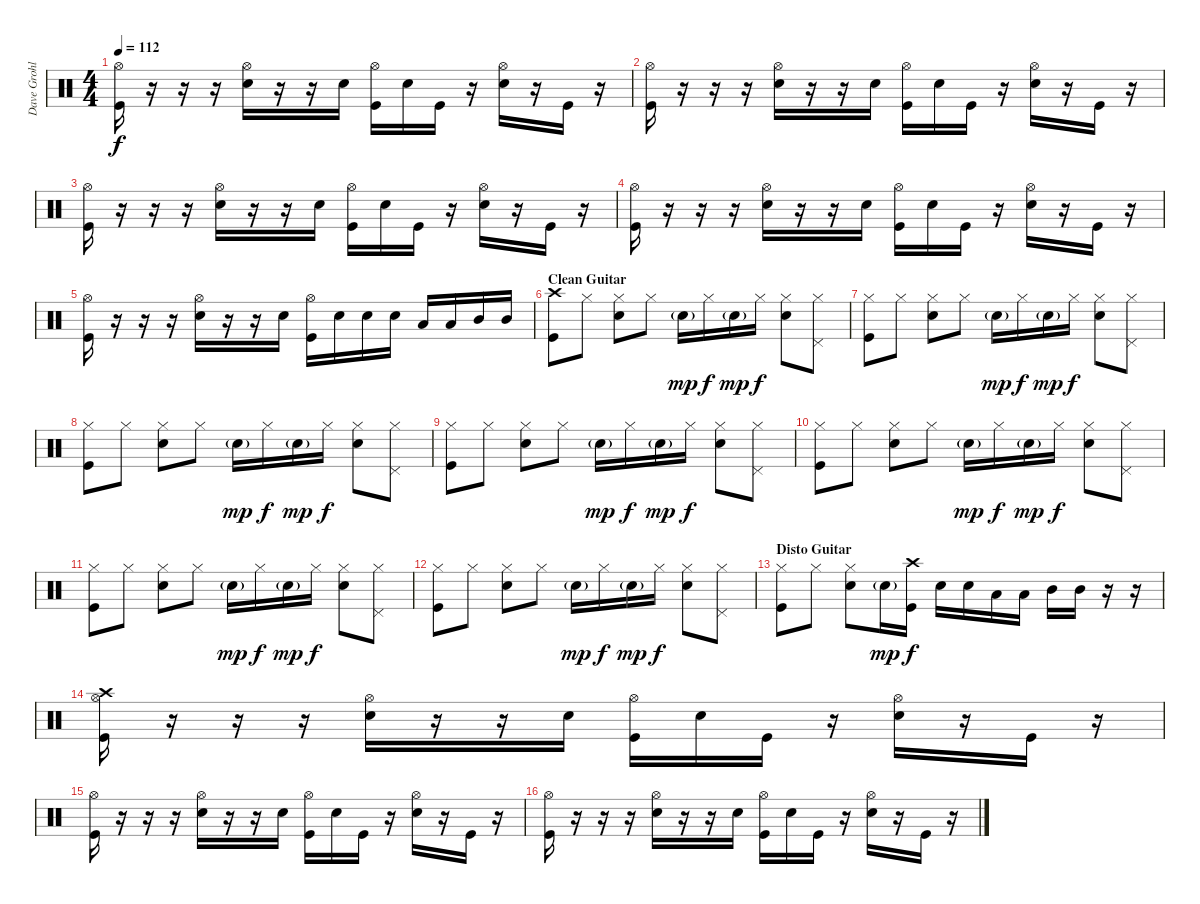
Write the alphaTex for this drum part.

\track ("Dave Grohl (Drums)" "Dave Grohl") {instrument percussion}
\staff {score}
\articulation defaults
\ts (4 4)
\tempo 112
\clef neutral
\ks c
("Hi-Hat (open)" "Kick (hit)").16{dy f} r.16 r.16 r.16 ("Hi-Hat (open)" "Electric Snare (hit)").16 r.16 r.16 "Electric Snare (hit)".16 ("Hi-Hat (open)" "Kick (hit)").16 "Electric Snare (hit)".16 "Kick (hit)".16 r.16 ("Hi-Hat (open)" "Electric Snare (hit)").16 r.16 "Kick (hit)".16 r.16 |
("Hi-Hat (open)" "Kick (hit)").16 r.16 r.16 r.16 ("Hi-Hat (open)" "Electric Snare (hit)").16 r.16 r.16 "Electric Snare (hit)".16 ("Hi-Hat (open)" "Kick (hit)").16 "Electric Snare (hit)".16 "Kick (hit)".16 r.16 ("Hi-Hat (open)" "Electric Snare (hit)").16 r.16 "Kick (hit)".16 r.16 |
("Hi-Hat (open)" "Kick (hit)").16 r.16 r.16 r.16 ("Hi-Hat (open)" "Electric Snare (hit)").16 r.16 r.16 "Electric Snare (hit)".16 ("Hi-Hat (open)" "Kick (hit)").16 "Electric Snare (hit)".16 "Kick (hit)".16 r.16 ("Hi-Hat (open)" "Electric Snare (hit)").16 r.16 "Kick (hit)".16 r.16 |
("Hi-Hat (open)" "Kick (hit)").16 r.16 r.16 r.16 ("Hi-Hat (open)" "Electric Snare (hit)").16 r.16 r.16 "Electric Snare (hit)".16 ("Hi-Hat (open)" "Kick (hit)").16 "Electric Snare (hit)".16 "Kick (hit)".16 r.16 ("Hi-Hat (open)" "Electric Snare (hit)").16 r.16 "Kick (hit)".16 r.16 |
("Hi-Hat (open)" "Kick (hit)").16 r.16 r.16 r.16 ("Hi-Hat (open)" "Electric Snare (hit)").16 r.16 r.16 "Electric Snare (hit)".16 ("Hi-Hat (open)" "Kick (hit)").16 "Electric Snare (hit)".16 "Electric Snare (hit)".16 "Electric Snare (hit)".16 "Low Tom (hit)".16 "Low Tom (hit)".16 "Mid Tom (hit)".16 "Mid Tom (hit)".16 |
\section ("" "Clean Guitar")
("Crash high (hit)" "Kick (hit)").8 "Hi-Hat (closed)".8 ("Hi-Hat (closed)" "Electric Snare (hit)").8 "Hi-Hat (closed)".8 "Electric Snare (hit)"{g}.16{dy mp} "Hi-Hat (closed)".16{dy f} "Electric Snare (hit)"{g}.16{dy mp} "Hi-Hat (closed)".16{dy f} ("Hi-Hat (closed)" "Electric Snare (hit)").8 ("Hi-Hat (closed)" "Pedal Hi-Hat (hit)").8 |
("Hi-Hat (closed)" "Kick (hit)").8 "Hi-Hat (closed)".8 ("Hi-Hat (closed)" "Electric Snare (hit)").8 "Hi-Hat (closed)".8 "Electric Snare (hit)"{g}.16{dy mp} "Hi-Hat (closed)".16{dy f} "Electric Snare (hit)"{g}.16{dy mp} "Hi-Hat (closed)".16{dy f} ("Hi-Hat (closed)" "Electric Snare (hit)").8 ("Hi-Hat (closed)" "Pedal Hi-Hat (hit)").8 |
("Hi-Hat (closed)" "Kick (hit)").8 "Hi-Hat (closed)".8 ("Hi-Hat (closed)" "Electric Snare (hit)").8 "Hi-Hat (closed)".8 "Electric Snare (hit)"{g}.16{dy mp} "Hi-Hat (closed)".16{dy f} "Electric Snare (hit)"{g}.16{dy mp} "Hi-Hat (closed)".16{dy f} ("Hi-Hat (closed)" "Electric Snare (hit)").8 ("Hi-Hat (closed)" "Pedal Hi-Hat (hit)").8 |
("Hi-Hat (closed)" "Kick (hit)").8 "Hi-Hat (closed)".8 ("Hi-Hat (closed)" "Electric Snare (hit)").8 "Hi-Hat (closed)".8 "Electric Snare (hit)"{g}.16{dy mp} "Hi-Hat (closed)".16{dy f} "Electric Snare (hit)"{g}.16{dy mp} "Hi-Hat (closed)".16{dy f} ("Hi-Hat (closed)" "Electric Snare (hit)").8 ("Hi-Hat (closed)" "Pedal Hi-Hat (hit)").8 |
("Hi-Hat (closed)" "Kick (hit)").8 "Hi-Hat (closed)".8 ("Hi-Hat (closed)" "Electric Snare (hit)").8 "Hi-Hat (closed)".8 "Electric Snare (hit)"{g}.16{dy mp} "Hi-Hat (closed)".16{dy f} "Electric Snare (hit)"{g}.16{dy mp} "Hi-Hat (closed)".16{dy f} ("Hi-Hat (closed)" "Electric Snare (hit)").8 ("Hi-Hat (closed)" "Pedal Hi-Hat (hit)").8 |
("Hi-Hat (closed)" "Kick (hit)").8 "Hi-Hat (closed)".8 ("Hi-Hat (closed)" "Electric Snare (hit)").8 "Hi-Hat (closed)".8 "Electric Snare (hit)"{g}.16{dy mp} "Hi-Hat (closed)".16{dy f} "Electric Snare (hit)"{g}.16{dy mp} "Hi-Hat (closed)".16{dy f} ("Hi-Hat (closed)" "Electric Snare (hit)").8 ("Hi-Hat (closed)" "Pedal Hi-Hat (hit)").8 |
("Hi-Hat (closed)" "Kick (hit)").8 "Hi-Hat (closed)".8 ("Hi-Hat (closed)" "Electric Snare (hit)").8 "Hi-Hat (closed)".8 "Electric Snare (hit)"{g}.16{dy mp} "Hi-Hat (closed)".16{dy f} "Electric Snare (hit)"{g}.16{dy mp} "Hi-Hat (closed)".16{dy f} ("Hi-Hat (closed)" "Electric Snare (hit)").8 ("Hi-Hat (closed)" "Pedal Hi-Hat (hit)").8 |
\section ("" "Disto Guitar")
("Hi-Hat (closed)" "Kick (hit)").8 "Hi-Hat (closed)".8 ("Hi-Hat (closed)" "Electric Snare (hit)").8 "Electric Snare (hit)"{g}.16{dy mp} ("Crash high (hit)" "Kick (hit)").16{dy f} "Electric Snare (hit)".16 "Electric Snare (hit)".16 "Low Tom (hit)".16 "Low Tom (hit)".16 "Mid Tom (hit)".16 "Mid Tom (hit)".16 r.16 r.16 |
("Hi-Hat (open)" "Kick (hit)" "Crash high (hit)").16 r.16 r.16 r.16 ("Hi-Hat (open)" "Electric Snare (hit)").16 r.16 r.16 "Electric Snare (hit)".16 ("Hi-Hat (open)" "Kick (hit)").16 "Electric Snare (hit)".16 "Kick (hit)".16 r.16 ("Hi-Hat (open)" "Electric Snare (hit)").16 r.16 "Kick (hit)".16 r.16 |
("Hi-Hat (open)" "Kick (hit)").16 r.16 r.16 r.16 ("Hi-Hat (open)" "Electric Snare (hit)").16 r.16 r.16 "Electric Snare (hit)".16 ("Hi-Hat (open)" "Kick (hit)").16 "Electric Snare (hit)".16 "Kick (hit)".16 r.16 ("Hi-Hat (open)" "Electric Snare (hit)").16 r.16 "Kick (hit)".16 r.16 |
("Hi-Hat (open)" "Kick (hit)").16 r.16 r.16 r.16 ("Hi-Hat (open)" "Electric Snare (hit)").16 r.16 r.16 "Electric Snare (hit)".16 ("Hi-Hat (open)" "Kick (hit)").16 "Electric Snare (hit)".16 "Kick (hit)".16 r.16 ("Hi-Hat (open)" "Electric Snare (hit)").16 r.16 "Kick (hit)".16 r.16
